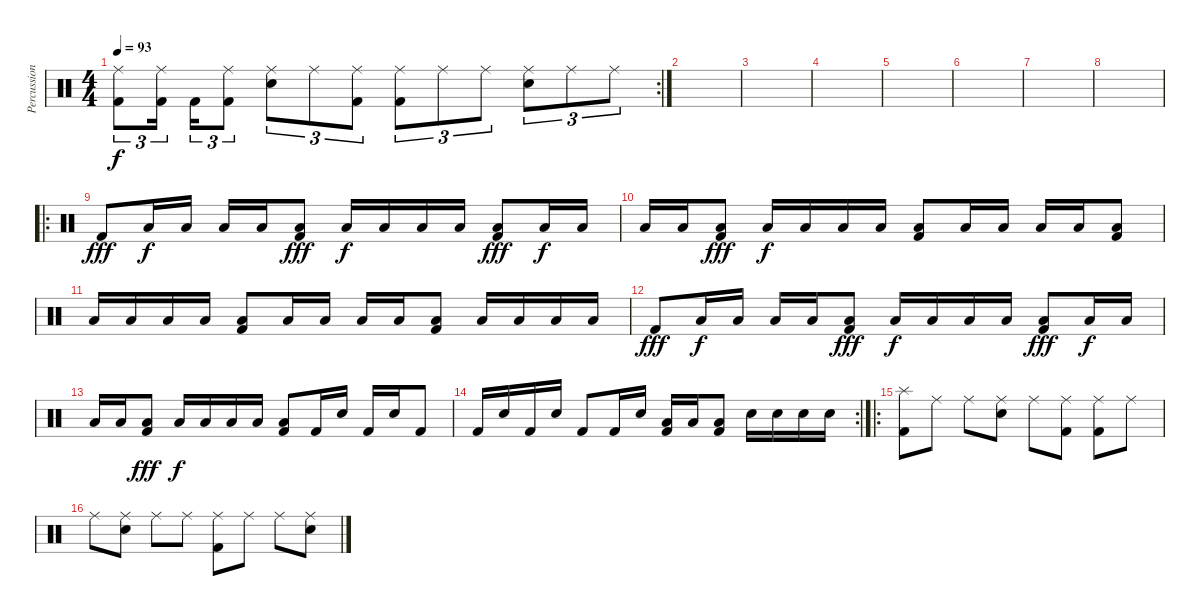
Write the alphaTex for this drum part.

\track ("Percussions" "Percussion") {instrument percussion}
\staff {score}
\articulation defaults
\rc 2
\ts (4 4)
\tempo 93
\clef neutral
\ks c
("Ride (middle)" "Kick (hit) 2").8{tu (3 2) dy f} ("Ride (middle)" "Kick (hit) 2").16{tu (3 2)} "Kick (hit) 2".16{tu (3 2)} ("Ride (middle)" "Kick (hit) 2").8{tu (3 2)} ("Ride (middle)" "Snare (hit) 2").8{tu (3 2)} "Ride (middle)".8{tu (3 2)} ("Ride (middle)" "Kick (hit) 2").8{tu (3 2)} ("Ride (middle)" "Kick (hit) 2").8{tu (3 2)} "Ride (middle)".8{tu (3 2)} "Ride (middle)".8{tu (3 2)} ("Ride (middle)" "Snare (hit) 2").8{tu (3 2)} "Ride (middle)".8{tu (3 2)} "Ride (middle)".8{tu (3 2)} |
|
|
|
|
|
|
|
\ro "Kick (hit) 2".8{dy fff} "Low Tom (hit)".16{dy f} "Low Tom (hit)".16 "Low Tom (hit)".16 "Low Tom (hit)".16
("Low Tom (hit)" "Kick (hit) 2").8{dy fff} "Low Tom (hit)".16{dy f} "Low Tom (hit)".16 "Low Tom (hit)".16 "Low Tom (hit)".16 ("Low Tom (hit)" "Kick (hit) 2").8{dy fff} "Low Tom (hit)".16{dy f} "Low Tom (hit)".16 |
"Low Tom (hit)".16 "Low Tom (hit)".16 ("Low Tom (hit)" "Kick (hit) 2").8{dy fff} "Low Tom (hit)".16{dy f} "Low Tom (hit)".16 "Low Tom (hit)".16 "Low Tom (hit)".16 ("Low Tom (hit)" "Kick (hit) 2").8 "Low Tom (hit)".16 "Low Tom (hit)".16 "Low Tom (hit)".16 "Low Tom (hit)".16 ("Low Tom (hit)" "Kick (hit) 2").8 |
"Low Tom (hit)".16 "Low Tom (hit)".16 "Low Tom (hit)".16 "Low Tom (hit)".16 ("Low Tom (hit)" "Kick (hit) 2").8 "Low Tom (hit)".16 "Low Tom (hit)".16 "Low Tom (hit)".16 "Low Tom (hit)".16 ("Low Tom (hit)" "Kick (hit) 2").8 "Low Tom (hit)".16 "Low Tom (hit)".16 "Low Tom (hit)".16 "Low Tom (hit)".16 |
"Kick (hit) 2".8{dy fff} "Low Tom (hit)".16{dy f} "Low Tom (hit)".16 "Low Tom (hit)".16 "Low Tom (hit)".16 ("Low Tom (hit)" "Kick (hit) 2").8{dy fff} "Low Tom (hit)".16{dy f} "Low Tom (hit)".16 "Low Tom (hit)".16 "Low Tom (hit)".16 ("Low Tom (hit)" "Kick (hit) 2").8{dy fff} "Low Tom (hit)".16{dy f} "Low Tom (hit)".16 |
"Low Tom (hit)".16 "Low Tom (hit)".16 ("Low Tom (hit)" "Kick (hit) 2").8{dy fff} "Low Tom (hit)".16{dy f} "Low Tom (hit)".16 "Low Tom (hit)".16 "Low Tom (hit)".16 ("Low Tom (hit)" "Kick (hit) 2").8 "Kick (hit) 2".16 "Snare (hit) 2".16 "Kick (hit) 2".16 "Snare (hit) 2".16 "Kick (hit) 2".8 |
\rc 2 "Kick (hit) 2".16 "Snare (hit) 2".16 "Kick (hit) 2".16 "Snare (hit) 2".16 "Kick (hit) 2".8 "Kick (hit) 2".16 "Snare (hit) 2".16
("Low Tom (hit)" "Kick (hit) 2").16 "Low Tom (hit)".16 ("Low Tom (hit)" "Kick (hit) 2").8 "Snare (hit) 2".16 "Snare (hit) 2".16 "Snare (hit) 2".16 "Snare (hit) 2".16 |
\ro
("Splash (hit)" "Kick (hit) 2").8 "Ride (middle)".8 "Ride (middle)".8 ("Ride (middle)" "Snare (hit) 2").8 "Ride (middle)".8 ("Ride (middle)" "Kick (hit) 2").8 ("Ride (middle)" "Kick (hit) 2").8 "Ride (middle)".8 |
"Ride (middle)".8 ("Ride (middle)" "Snare (hit) 2").8 "Ride (middle)".8 "Ride (middle)".8 ("Ride (middle)" "Kick (hit) 2").8 "Ride (middle)".8 "Ride (middle)".8 ("Ride (middle)" "Snare (hit) 2").8
